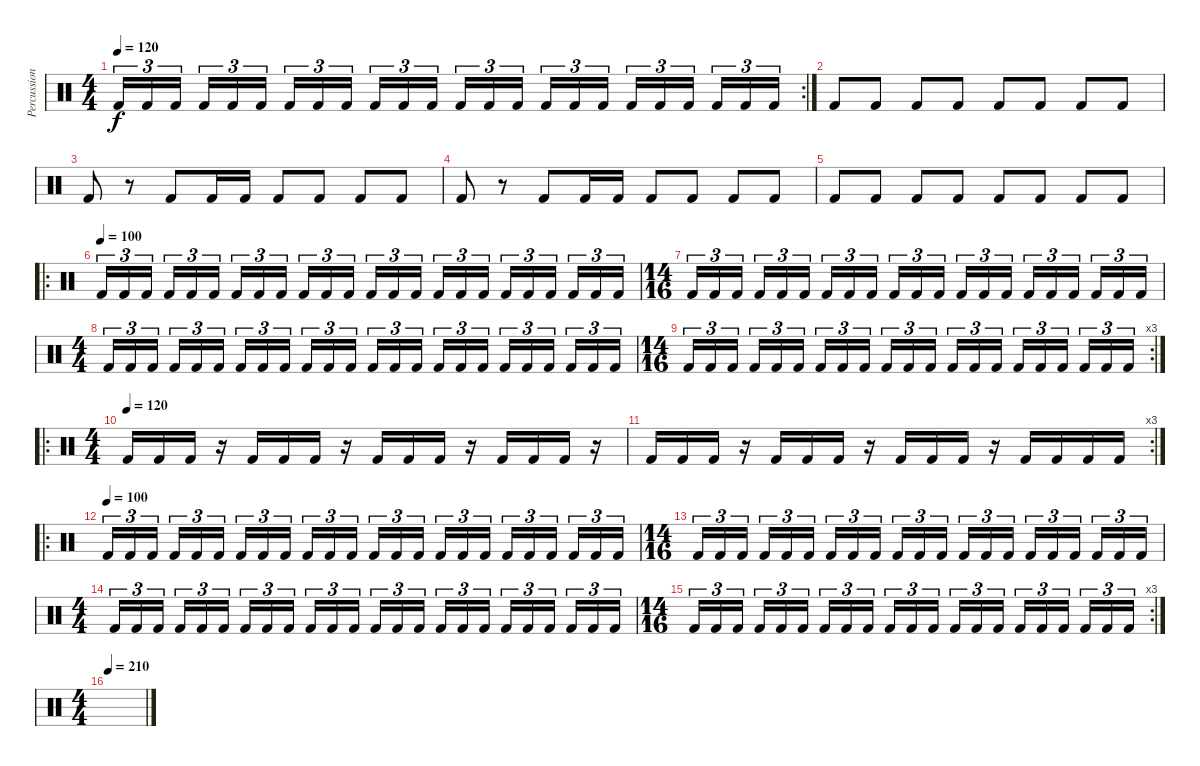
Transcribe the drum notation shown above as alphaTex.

\track ("Percussion" "Percussion") {instrument percussion}
\staff {score}
\articulation defaults
\rc 2
\ts (4 4)
\tempo 120
\clef neutral
\ks c "Kick (hit) 2".16{tu (3 2) dy f} "Kick (hit) 2".16{tu (3 2)} "Kick (hit) 2".16{tu (3 2)} "Kick (hit) 2".16{tu (3 2)} "Kick (hit) 2".16{tu (3 2)} "Kick (hit) 2".16{tu (3 2)} "Kick (hit) 2".16{tu (3 2)} "Kick (hit) 2".16{tu (3 2)} "Kick (hit) 2".16{tu (3 2)} "Kick (hit) 2".16{tu (3 2)} "Kick (hit) 2".16{tu (3 2)} "Kick (hit) 2".16{tu (3 2)} "Kick (hit) 2".16{tu (3 2)} "Kick (hit) 2".16{tu (3 2)} "Kick (hit) 2".16{tu (3 2)} "Kick (hit) 2".16{tu (3 2)} "Kick (hit) 2".16{tu (3 2)} "Kick (hit) 2".16{tu (3 2)} "Kick (hit) 2".16{tu (3 2)} "Kick (hit) 2".16{tu (3 2)} "Kick (hit) 2".16{tu (3 2)} "Kick (hit) 2".16{tu (3 2)} "Kick (hit) 2".16{tu (3 2)} "Kick (hit) 2".16{tu (3 2)}
|
"Kick (hit) 2".8 "Kick (hit) 2".8 "Kick (hit) 2".8 "Kick (hit) 2".8 "Kick (hit) 2".8 "Kick (hit) 2".8 "Kick (hit) 2".8 "Kick (hit) 2".8 |
"Kick (hit) 2".8 r.8 "Kick (hit) 2".8 "Kick (hit) 2".16 "Kick (hit) 2".16 "Kick (hit) 2".8 "Kick (hit) 2".8 "Kick (hit) 2".8 "Kick (hit) 2".8 |
"Kick (hit) 2".8 r.8 "Kick (hit) 2".8 "Kick (hit) 2".16 "Kick (hit) 2".16 "Kick (hit) 2".8 "Kick (hit) 2".8 "Kick (hit) 2".8 "Kick (hit) 2".8 |
"Kick (hit) 2".8 "Kick (hit) 2".8 "Kick (hit) 2".8 "Kick (hit) 2".8 "Kick (hit) 2".8 "Kick (hit) 2".8 "Kick (hit) 2".8 "Kick (hit) 2".8 |
\ro
\tempo (100)
"Kick (hit) 2".16{tu (3 2)} "Kick (hit) 2".16{tu (3 2)} "Kick (hit) 2".16{tu (3 2)} "Kick (hit) 2".16{tu (3 2)} "Kick (hit) 2".16{tu (3 2)} "Kick (hit) 2".16{tu (3 2)} "Kick (hit) 2".16{tu (3 2)} "Kick (hit) 2".16{tu (3 2)} "Kick (hit) 2".16{tu (3 2)} "Kick (hit) 2".16{tu (3 2)} "Kick (hit) 2".16{tu (3 2)} "Kick (hit) 2".16{tu (3 2)} "Kick (hit) 2".16{tu (3 2)} "Kick (hit) 2".16{tu (3 2)} "Kick (hit) 2".16{tu (3 2)} "Kick (hit) 2".16{tu (3 2)} "Kick (hit) 2".16{tu (3 2)} "Kick (hit) 2".16{tu (3 2)} "Kick (hit) 2".16{tu (3 2)} "Kick (hit) 2".16{tu (3 2)} "Kick (hit) 2".16{tu (3 2)} "Kick (hit) 2".16{tu (3 2)} "Kick (hit) 2".16{tu (3 2)} "Kick (hit) 2".16{tu (3 2)} |
\ts (14 16)
"Kick (hit) 2".16{tu (3 2)} "Kick (hit) 2".16{tu (3 2)} "Kick (hit) 2".16{tu (3 2)} "Kick (hit) 2".16{tu (3 2)} "Kick (hit) 2".16{tu (3 2)} "Kick (hit) 2".16{tu (3 2)} "Kick (hit) 2".16{tu (3 2)} "Kick (hit) 2".16{tu (3 2)} "Kick (hit) 2".16{tu (3 2)} "Kick (hit) 2".16{tu (3 2)} "Kick (hit) 2".16{tu (3 2)} "Kick (hit) 2".16{tu (3 2)} "Kick (hit) 2".16{tu (3 2)} "Kick (hit) 2".16{tu (3 2)} "Kick (hit) 2".16{tu (3 2)} "Kick (hit) 2".16{tu (3 2)} "Kick (hit) 2".16{tu (3 2)} "Kick (hit) 2".16{tu (3 2)} "Kick (hit) 2".16{tu (3 2)} "Kick (hit) 2".16{tu (3 2)} "Kick (hit) 2".16{tu (3 2)} |
\ts (4 4)
"Kick (hit) 2".16{tu (3 2)} "Kick (hit) 2".16{tu (3 2)} "Kick (hit) 2".16{tu (3 2)} "Kick (hit) 2".16{tu (3 2)} "Kick (hit) 2".16{tu (3 2)} "Kick (hit) 2".16{tu (3 2)} "Kick (hit) 2".16{tu (3 2)} "Kick (hit) 2".16{tu (3 2)} "Kick (hit) 2".16{tu (3 2)} "Kick (hit) 2".16{tu (3 2)} "Kick (hit) 2".16{tu (3 2)} "Kick (hit) 2".16{tu (3 2)} "Kick (hit) 2".16{tu (3 2)} "Kick (hit) 2".16{tu (3 2)} "Kick (hit) 2".16{tu (3 2)} "Kick (hit) 2".16{tu (3 2)} "Kick (hit) 2".16{tu (3 2)} "Kick (hit) 2".16{tu (3 2)} "Kick (hit) 2".16{tu (3 2)} "Kick (hit) 2".16{tu (3 2)} "Kick (hit) 2".16{tu (3 2)} "Kick (hit) 2".16{tu (3 2)} "Kick (hit) 2".16{tu (3 2)} "Kick (hit) 2".16{tu (3 2)} |
\rc 3
\ts (14 16)
"Kick (hit) 2".16{tu (3 2)} "Kick (hit) 2".16{tu (3 2)} "Kick (hit) 2".16{tu (3 2)} "Kick (hit) 2".16{tu (3 2)} "Kick (hit) 2".16{tu (3 2)} "Kick (hit) 2".16{tu (3 2)} "Kick (hit) 2".16{tu (3 2)} "Kick (hit) 2".16{tu (3 2)} "Kick (hit) 2".16{tu (3 2)} "Kick (hit) 2".16{tu (3 2)} "Kick (hit) 2".16{tu (3 2)} "Kick (hit) 2".16{tu (3 2)} "Kick (hit) 2".16{tu (3 2)} "Kick (hit) 2".16{tu (3 2)} "Kick (hit) 2".16{tu (3 2)} "Kick (hit) 2".16{tu (3 2)} "Kick (hit) 2".16{tu (3 2)} "Kick (hit) 2".16{tu (3 2)} "Kick (hit) 2".16{tu (3 2)} "Kick (hit) 2".16{tu (3 2)} "Kick (hit) 2".16{tu (3 2)} |
\ro
\ts (4 4)
\tempo (120)
"Kick (hit) 2".16 "Kick (hit) 2".16 "Kick (hit) 2".16 r.16 "Kick (hit) 2".16 "Kick (hit) 2".16 "Kick (hit) 2".16 r.16 "Kick (hit) 2".16 "Kick (hit) 2".16 "Kick (hit) 2".16 r.16 "Kick (hit) 2".16 "Kick (hit) 2".16 "Kick (hit) 2".16 r.16 |
\rc 3 "Kick (hit) 2".16 "Kick (hit) 2".16 "Kick (hit) 2".16
r.16 "Kick (hit) 2".16 "Kick (hit) 2".16 "Kick (hit) 2".16 r.16 "Kick (hit) 2".16 "Kick (hit) 2".16 "Kick (hit) 2".16 r.16 "Kick (hit) 2".16 "Kick (hit) 2".16 "Kick (hit) 2".16 "Kick (hit) 2".16 |
\ro
\tempo (100)
"Kick (hit) 2".16{tu (3 2)} "Kick (hit) 2".16{tu (3 2)} "Kick (hit) 2".16{tu (3 2)} "Kick (hit) 2".16{tu (3 2)} "Kick (hit) 2".16{tu (3 2)} "Kick (hit) 2".16{tu (3 2)} "Kick (hit) 2".16{tu (3 2)} "Kick (hit) 2".16{tu (3 2)} "Kick (hit) 2".16{tu (3 2)} "Kick (hit) 2".16{tu (3 2)} "Kick (hit) 2".16{tu (3 2)} "Kick (hit) 2".16{tu (3 2)} "Kick (hit) 2".16{tu (3 2)} "Kick (hit) 2".16{tu (3 2)} "Kick (hit) 2".16{tu (3 2)} "Kick (hit) 2".16{tu (3 2)} "Kick (hit) 2".16{tu (3 2)} "Kick (hit) 2".16{tu (3 2)} "Kick (hit) 2".16{tu (3 2)} "Kick (hit) 2".16{tu (3 2)} "Kick (hit) 2".16{tu (3 2)} "Kick (hit) 2".16{tu (3 2)} "Kick (hit) 2".16{tu (3 2)} "Kick (hit) 2".16{tu (3 2)} |
\ts (14 16)
"Kick (hit) 2".16{tu (3 2)} "Kick (hit) 2".16{tu (3 2)} "Kick (hit) 2".16{tu (3 2)} "Kick (hit) 2".16{tu (3 2)} "Kick (hit) 2".16{tu (3 2)} "Kick (hit) 2".16{tu (3 2)} "Kick (hit) 2".16{tu (3 2)} "Kick (hit) 2".16{tu (3 2)} "Kick (hit) 2".16{tu (3 2)} "Kick (hit) 2".16{tu (3 2)} "Kick (hit) 2".16{tu (3 2)} "Kick (hit) 2".16{tu (3 2)} "Kick (hit) 2".16{tu (3 2)} "Kick (hit) 2".16{tu (3 2)} "Kick (hit) 2".16{tu (3 2)} "Kick (hit) 2".16{tu (3 2)} "Kick (hit) 2".16{tu (3 2)} "Kick (hit) 2".16{tu (3 2)} "Kick (hit) 2".16{tu (3 2)} "Kick (hit) 2".16{tu (3 2)} "Kick (hit) 2".16{tu (3 2)} |
\ts (4 4)
"Kick (hit) 2".16{tu (3 2)} "Kick (hit) 2".16{tu (3 2)} "Kick (hit) 2".16{tu (3 2)} "Kick (hit) 2".16{tu (3 2)} "Kick (hit) 2".16{tu (3 2)} "Kick (hit) 2".16{tu (3 2)} "Kick (hit) 2".16{tu (3 2)} "Kick (hit) 2".16{tu (3 2)} "Kick (hit) 2".16{tu (3 2)} "Kick (hit) 2".16{tu (3 2)} "Kick (hit) 2".16{tu (3 2)} "Kick (hit) 2".16{tu (3 2)} "Kick (hit) 2".16{tu (3 2)} "Kick (hit) 2".16{tu (3 2)} "Kick (hit) 2".16{tu (3 2)} "Kick (hit) 2".16{tu (3 2)} "Kick (hit) 2".16{tu (3 2)} "Kick (hit) 2".16{tu (3 2)} "Kick (hit) 2".16{tu (3 2)} "Kick (hit) 2".16{tu (3 2)} "Kick (hit) 2".16{tu (3 2)} "Kick (hit) 2".16{tu (3 2)} "Kick (hit) 2".16{tu (3 2)} "Kick (hit) 2".16{tu (3 2)} |
\rc 3
\ts (14 16)
"Kick (hit) 2".16{tu (3 2)} "Kick (hit) 2".16{tu (3 2)} "Kick (hit) 2".16{tu (3 2)} "Kick (hit) 2".16{tu (3 2)} "Kick (hit) 2".16{tu (3 2)} "Kick (hit) 2".16{tu (3 2)} "Kick (hit) 2".16{tu (3 2)} "Kick (hit) 2".16{tu (3 2)} "Kick (hit) 2".16{tu (3 2)} "Kick (hit) 2".16{tu (3 2)} "Kick (hit) 2".16{tu (3 2)} "Kick (hit) 2".16{tu (3 2)} "Kick (hit) 2".16{tu (3 2)} "Kick (hit) 2".16{tu (3 2)} "Kick (hit) 2".16{tu (3 2)} "Kick (hit) 2".16{tu (3 2)} "Kick (hit) 2".16{tu (3 2)} "Kick (hit) 2".16{tu (3 2)} "Kick (hit) 2".16{tu (3 2)} "Kick (hit) 2".16{tu (3 2)} "Kick (hit) 2".16{tu (3 2)} |
\ts (4 4)
\tempo 120
\tempo 210
